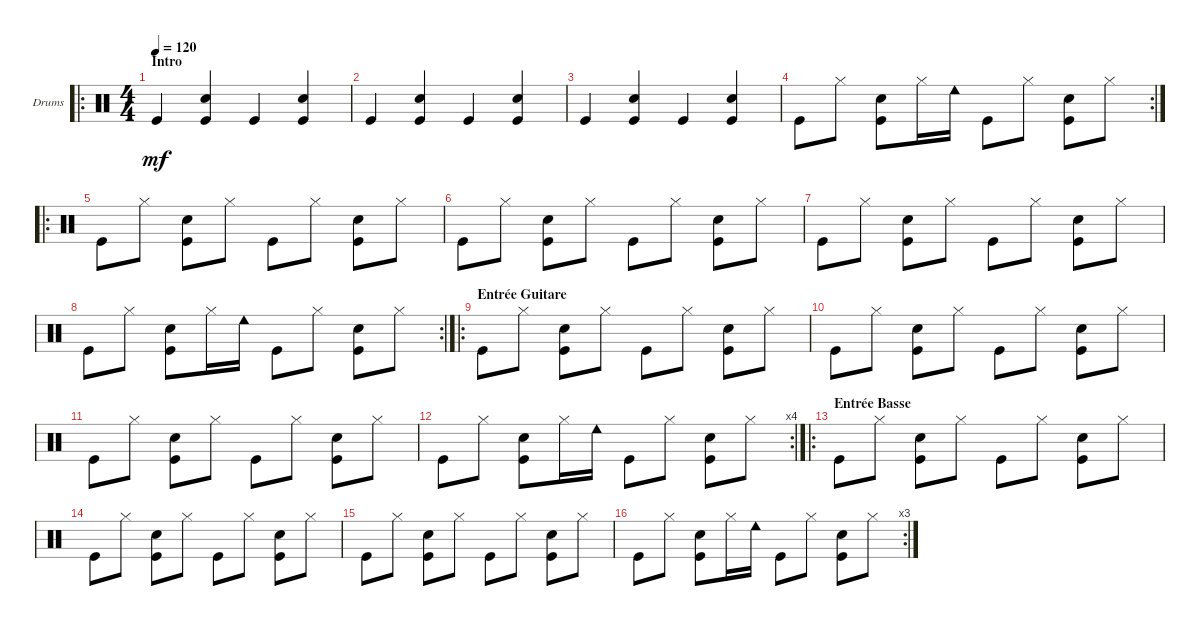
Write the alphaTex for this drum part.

\defaultSystemsLayout 4
\bracketExtendMode groupsimilarinstruments
\firstSystemTrackNameOrientation horizontal
\otherSystemsTrackNameOrientation horizontal
\track ("Drumkit" "Drums") {instrument percussion}
\staff {score}
\articulation defaults
\ro
\ts (4 4)
\section ("" "Intro")
\tempo 120
\clef neutral
\ks c "Kick (hit)".4{dy mf}
("Snare (hit) 2" "Kick (hit)").4 "Kick (hit)".4 ("Snare (hit) 2" "Kick (hit)").4 |
"Kick (hit)".4 ("Snare (hit) 2" "Kick (hit)").4 "Kick (hit)".4 ("Snare (hit) 2" "Kick (hit)").4 |
"Kick (hit)".4 ("Snare (hit) 2" "Kick (hit)").4 "Kick (hit)".4 ("Snare (hit) 2" "Kick (hit)").4 |
\rc 2 "Kick (hit)".8 "Hi-Hat (closed)".8
("Snare (hit) 2" "Kick (hit)").8 "Hi-Hat (closed)".16 "Cowbell low (hit)".16 "Kick (hit)".8 "Hi-Hat (closed)".8 ("Snare (hit) 2" "Kick (hit)").8 "Hi-Hat (closed)".8 |
\ro "Kick (hit)".8 "Hi-Hat (closed)".8
("Snare (hit) 2" "Kick (hit)").8 "Hi-Hat (closed)".8 "Kick (hit)".8 "Hi-Hat (closed)".8 ("Snare (hit) 2" "Kick (hit)").8 "Hi-Hat (closed)".8 |
"Kick (hit)".8 "Hi-Hat (closed)".8 ("Snare (hit) 2" "Kick (hit)").8 "Hi-Hat (closed)".8 "Kick (hit)".8 "Hi-Hat (closed)".8 ("Snare (hit) 2" "Kick (hit)").8 "Hi-Hat (closed)".8 |
"Kick (hit)".8 "Hi-Hat (closed)".8 ("Snare (hit) 2" "Kick (hit)").8 "Hi-Hat (closed)".8 "Kick (hit)".8 "Hi-Hat (closed)".8 ("Snare (hit) 2" "Kick (hit)").8 "Hi-Hat (closed)".8 |
\rc 2 "Kick (hit)".8 "Hi-Hat (closed)".8
("Snare (hit) 2" "Kick (hit)").8 "Hi-Hat (closed)".16 "Cowbell low (hit)".16 "Kick (hit)".8 "Hi-Hat (closed)".8 ("Snare (hit) 2" "Kick (hit)").8 "Hi-Hat (closed)".8 |
\ro
\section ("" "Entrée Guitare")
"Kick (hit)".8 "Hi-Hat (closed)".8 ("Snare (hit) 2" "Kick (hit)").8 "Hi-Hat (closed)".8 "Kick (hit)".8 "Hi-Hat (closed)".8 ("Snare (hit) 2" "Kick (hit)").8 "Hi-Hat (closed)".8 |
"Kick (hit)".8 "Hi-Hat (closed)".8 ("Snare (hit) 2" "Kick (hit)").8 "Hi-Hat (closed)".8 "Kick (hit)".8 "Hi-Hat (closed)".8 ("Snare (hit) 2" "Kick (hit)").8 "Hi-Hat (closed)".8 |
"Kick (hit)".8 "Hi-Hat (closed)".8 ("Snare (hit) 2" "Kick (hit)").8 "Hi-Hat (closed)".8 "Kick (hit)".8 "Hi-Hat (closed)".8 ("Snare (hit) 2" "Kick (hit)").8 "Hi-Hat (closed)".8 |
\rc 4 "Kick (hit)".8 "Hi-Hat (closed)".8
("Snare (hit) 2" "Kick (hit)").8 "Hi-Hat (closed)".16 "Cowbell low (hit)".16 "Kick (hit)".8 "Hi-Hat (closed)".8 ("Snare (hit) 2" "Kick (hit)").8 "Hi-Hat (closed)".8 |
\ro
\section ("" "Entrée Basse")
"Kick (hit)".8 "Hi-Hat (closed)".8 ("Snare (hit) 2" "Kick (hit)").8 "Hi-Hat (closed)".8 "Kick (hit)".8 "Hi-Hat (closed)".8 ("Snare (hit) 2" "Kick (hit)").8 "Hi-Hat (closed)".8 |
"Kick (hit)".8 "Hi-Hat (closed)".8 ("Snare (hit) 2" "Kick (hit)").8 "Hi-Hat (closed)".8 "Kick (hit)".8 "Hi-Hat (closed)".8 ("Snare (hit) 2" "Kick (hit)").8 "Hi-Hat (closed)".8 |
"Kick (hit)".8 "Hi-Hat (closed)".8 ("Snare (hit) 2" "Kick (hit)").8 "Hi-Hat (closed)".8 "Kick (hit)".8 "Hi-Hat (closed)".8 ("Snare (hit) 2" "Kick (hit)").8 "Hi-Hat (closed)".8 |
\rc 3 "Kick (hit)".8 "Hi-Hat (closed)".8
("Snare (hit) 2" "Kick (hit)").8 "Hi-Hat (closed)".16 "Cowbell low (hit)".16 "Kick (hit)".8 "Hi-Hat (closed)".8 ("Snare (hit) 2" "Kick (hit)").8 "Hi-Hat (closed)".8
